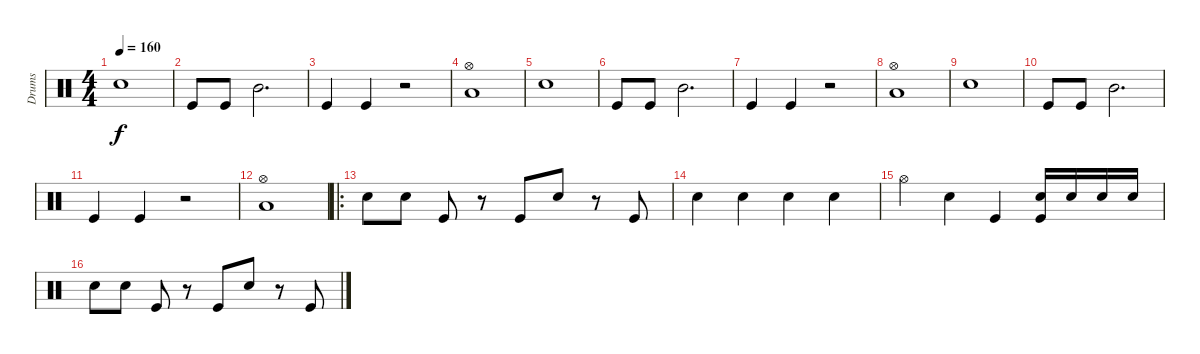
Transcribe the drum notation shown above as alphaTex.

\track ("Drums" "Drums") {instrument percussion}
\staff {score}
\articulation defaults
\ts (4 4)
\tempo 160
\clef neutral
\ks c "Snare (hit) 2".1{dy f}
|
"Kick (hit)".8 "Kick (hit)".8 "Mid Tom (hit)".2{d} |
"Kick (hit)".4 "Kick (hit)".4 r.2 |
("Hi-Hat (open)" "Low Tom (hit)").1 |
"Snare (hit) 2".1 |
"Kick (hit)".8 "Kick (hit)".8 "Mid Tom (hit)".2{d} |
"Kick (hit)".4 "Kick (hit)".4 r.2 |
("Hi-Hat (open)" "Low Tom (hit)").1 |
"Snare (hit) 2".1 |
"Kick (hit)".8 "Kick (hit)".8 "Mid Tom (hit)".2{d} |
"Kick (hit)".4 "Kick (hit)".4 r.2 |
("Hi-Hat (open)" "Low Tom (hit)").1 |
\ro "Snare (hit) 2".8 "Snare (hit) 2".8 "Kick (hit)".8
r.8 "Kick (hit)".8 "Snare (hit) 2".8 r.8 "Kick (hit)".8 |
"Snare (hit) 2".4 "Snare (hit) 2".4 "Snare (hit) 2".4 "Snare (hit) 2".4 |
"Hi-Hat (open)".4 "Snare (hit) 2".4 "Kick (hit)".4 ("Snare (hit) 2" "Kick (hit)").16 "Snare (hit) 2".16 "Snare (hit) 2".16 "Snare (hit) 2".16 |
"Snare (hit) 2".8 "Snare (hit) 2".8 "Kick (hit)".8 r.8 "Kick (hit)".8 "Snare (hit) 2".8 r.8 "Kick (hit)".8
